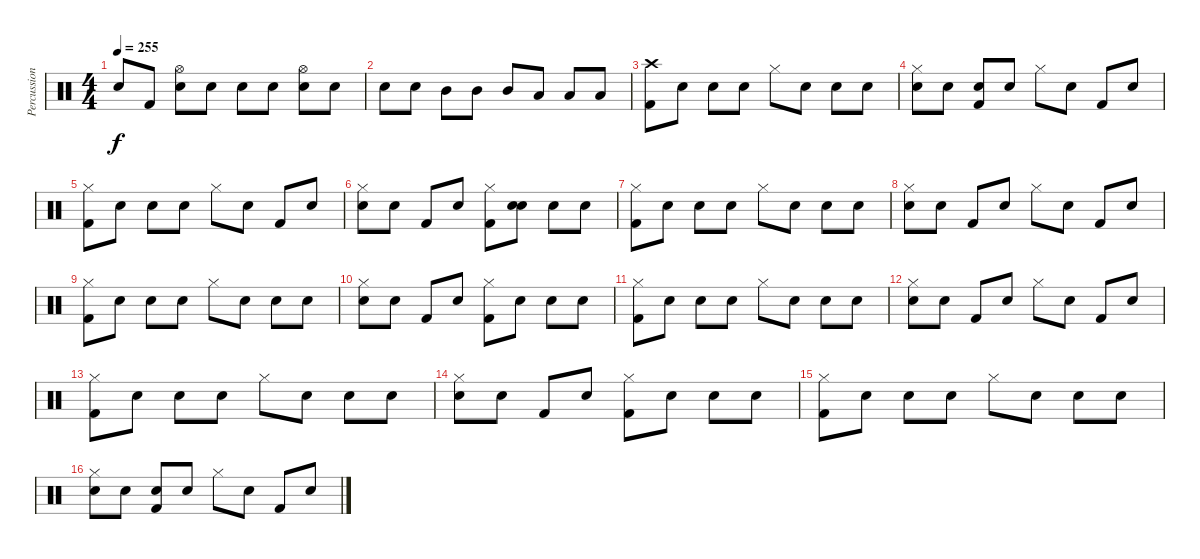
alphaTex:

\track ("Percussion" "Percussion") {instrument percussion}
\staff {score}
\articulation defaults
\ts (4 4)
\tempo 255
\clef neutral
\ks c "Snare (hit)".8{dy f} "Kick (hit) 2".8
("Snare (hit) 2" "Hi-Hat (open)").8 "Snare (hit)".8 "Snare (hit)".8 "Snare (hit)".8 ("Snare (hit) 2" "Hi-Hat (open)").8 "Snare (hit) 2".8 |
"Snare (hit) 2".8 "Snare (hit) 2".8 "Mid Tom (hit)".8 "Mid Tom (hit)".8 "Mid Tom (hit)".8 "Low Tom (hit)".8 "Low Tom (hit)".8 "Low Tom (hit)".8 |
("Kick (hit) 2" "Crash high (hit)").8 "Snare (hit)".8 "Snare (hit)".8 "Snare (hit)".8 "Hi-Hat (closed)".8 "Snare (hit)".8 "Snare (hit)".8 "Snare (hit)".8 |
("Snare (hit) 2" "Hi-Hat (closed)").8 "Snare (hit)".8 ("Kick (hit) 2" "Snare (hit)").8 "Snare (hit)".8 "Hi-Hat (closed)".8 "Snare (hit)".8 "Kick (hit) 2".8 "Snare (hit)".8 |
("Kick (hit) 2" "Hi-Hat (closed)").8 "Snare (hit)".8 "Snare (hit)".8 "Snare (hit)".8 "Hi-Hat (closed)".8 "Snare (hit)".8 "Kick (hit) 2".8 "Snare (hit)".8 |
("Snare (hit) 2" "Hi-Hat (closed)").8 "Snare (hit)".8 "Kick (hit) 2".8 "Snare (hit)".8 ("Kick (hit) 2" "Hi-Hat (closed)").8 ("Snare (hit)" "Snare (hit)").8 "Snare (hit)".8 "Snare (hit)".8 |
("Kick (hit) 2" "Hi-Hat (closed)").8 "Snare (hit)".8 "Snare (hit)".8 "Snare (hit)".8 "Hi-Hat (closed)".8 "Snare (hit)".8 "Snare (hit)".8 "Snare (hit)".8 |
("Snare (hit) 2" "Hi-Hat (closed)").8 "Snare (hit)".8 "Kick (hit) 2".8 "Snare (hit)".8 "Hi-Hat (closed)".8 "Snare (hit)".8 "Kick (hit) 2".8 "Snare (hit)".8 |
("Kick (hit) 2" "Hi-Hat (closed)").8 "Snare (hit)".8 "Snare (hit)".8 "Snare (hit)".8 "Hi-Hat (closed)".8 "Snare (hit)".8 "Snare (hit)".8 "Snare (hit)".8 |
("Snare (hit) 2" "Hi-Hat (closed)").8 "Snare (hit)".8 "Kick (hit) 2".8 "Snare (hit)".8 ("Kick (hit) 2" "Hi-Hat (closed)").8 "Snare (hit)".8 "Snare (hit)".8 "Snare (hit)".8 |
("Kick (hit) 2" "Hi-Hat (closed)").8 "Snare (hit)".8 "Snare (hit)".8 "Snare (hit)".8 "Hi-Hat (closed)".8 "Snare (hit)".8 "Snare (hit)".8 "Snare (hit)".8 |
("Snare (hit) 2" "Hi-Hat (closed)").8 "Snare (hit)".8 "Kick (hit) 2".8 "Snare (hit)".8 "Hi-Hat (closed)".8 "Snare (hit)".8 "Kick (hit) 2".8 "Snare (hit)".8 |
("Kick (hit) 2" "Hi-Hat (closed)").8 "Snare (hit)".8 "Snare (hit)".8 "Snare (hit)".8 "Hi-Hat (closed)".8 "Snare (hit)".8 "Snare (hit)".8 "Snare (hit)".8 |
("Snare (hit) 2" "Hi-Hat (closed)").8 "Snare (hit)".8 "Kick (hit) 2".8 "Snare (hit)".8 ("Kick (hit) 2" "Hi-Hat (closed)").8 "Snare (hit)".8 "Snare (hit)".8 "Snare (hit)".8 |
("Kick (hit) 2" "Hi-Hat (closed)").8 "Snare (hit)".8 "Snare (hit)".8 "Snare (hit)".8 "Hi-Hat (closed)".8 "Snare (hit)".8 "Snare (hit)".8 "Snare (hit)".8 |
("Snare (hit) 2" "Hi-Hat (closed)").8 "Snare (hit)".8 ("Kick (hit) 2" "Snare (hit)").8 "Snare (hit)".8 "Hi-Hat (closed)".8 "Snare (hit)".8 "Kick (hit) 2".8 "Snare (hit)".8
